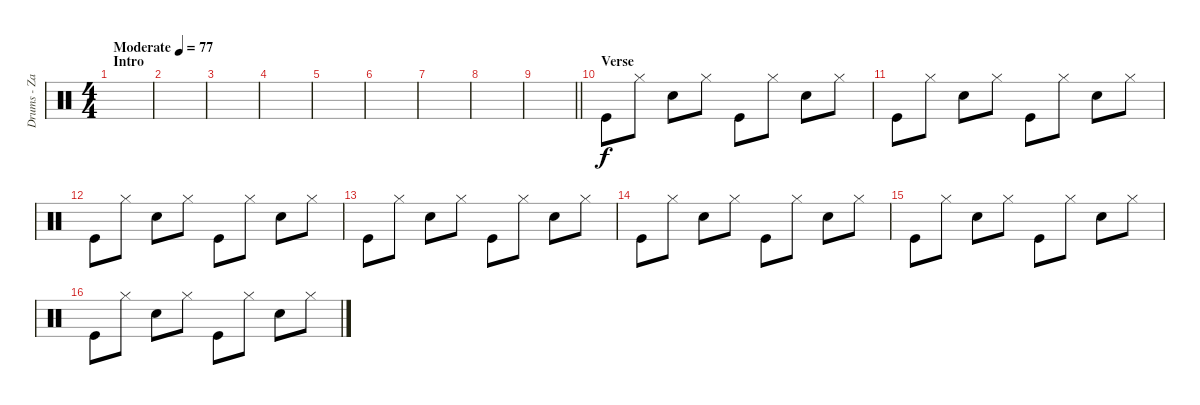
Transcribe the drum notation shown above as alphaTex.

\track ("Drums - Zakk Starkey" "Drums - Za") {instrument percussion}
\staff {score}
\articulation defaults
\ts (4 4)
\section ("" "Intro")
\tempo (77 "Moderate")
\clef neutral
\ks c
|
|
|
|
|
|
|
|
\barLineRight lightlight
|
\section ("" "Verse")
"Kick (hit)".8 "Hi-Hat (closed)".8 "Snare (hit) 2".8 "Hi-Hat (closed)".8 "Kick (hit)".8 "Hi-Hat (closed)".8 "Snare (hit) 2".8 "Hi-Hat (closed)".8 |
"Kick (hit)".8 "Hi-Hat (closed)".8 "Snare (hit) 2".8 "Hi-Hat (closed)".8 "Kick (hit)".8 "Hi-Hat (closed)".8 "Snare (hit) 2".8 "Hi-Hat (closed)".8 |
"Kick (hit)".8 "Hi-Hat (closed)".8 "Snare (hit) 2".8 "Hi-Hat (closed)".8 "Kick (hit)".8 "Hi-Hat (closed)".8 "Snare (hit) 2".8 "Hi-Hat (closed)".8 |
"Kick (hit)".8 "Hi-Hat (closed)".8 "Snare (hit) 2".8 "Hi-Hat (closed)".8 "Kick (hit)".8 "Hi-Hat (closed)".8 "Snare (hit) 2".8 "Hi-Hat (closed)".8 |
"Kick (hit)".8 "Hi-Hat (closed)".8 "Snare (hit) 2".8 "Hi-Hat (closed)".8 "Kick (hit)".8 "Hi-Hat (closed)".8 "Snare (hit) 2".8 "Hi-Hat (closed)".8 |
"Kick (hit)".8 "Hi-Hat (closed)".8 "Snare (hit) 2".8 "Hi-Hat (closed)".8 "Kick (hit)".8 "Hi-Hat (closed)".8 "Snare (hit) 2".8 "Hi-Hat (closed)".8 |
"Kick (hit)".8 "Hi-Hat (closed)".8 "Snare (hit) 2".8 "Hi-Hat (closed)".8 "Kick (hit)".8 "Hi-Hat (closed)".8 "Snare (hit) 2".8 "Hi-Hat (closed)".8
